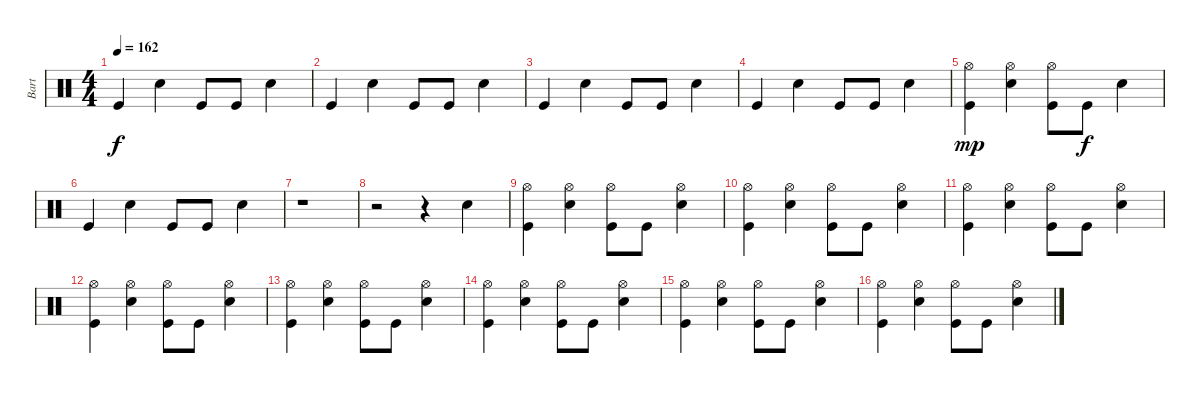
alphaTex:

\track ("Bart" "Bart") {instrument percussion}
\staff {score}
\articulation defaults
\ts (4 4)
\tempo 162
\clef neutral
\ks c "Kick (hit)".4{dy f} "Electric Snare (hit)".4 "Kick (hit)".8 "Kick (hit)".8 "Electric Snare (hit)".4
|
"Kick (hit)".4 "Electric Snare (hit)".4 "Kick (hit)".8 "Kick (hit)".8 "Electric Snare (hit)".4 |
"Kick (hit)".4 "Electric Snare (hit)".4 "Kick (hit)".8 "Kick (hit)".8 "Electric Snare (hit)".4 |
"Kick (hit)".4 "Electric Snare (hit)".4 "Kick (hit)".8 "Kick (hit)".8 "Electric Snare (hit)".4 |
("Kick (hit)" "Hi-Hat (open)").4{dy mp} ("Electric Snare (hit)" "Hi-Hat (open)").4 ("Kick (hit)" "Hi-Hat (open)").8 "Kick (hit)".8{dy f} "Electric Snare (hit)".4 |
"Kick (hit)".4 "Electric Snare (hit)".4 "Kick (hit)".8 "Kick (hit)".8 "Electric Snare (hit)".4 |
r.1 |
r.2 r.4 "Electric Snare (hit)".4 |
("Kick (hit)" "Hi-Hat (open)").4 ("Electric Snare (hit)" "Hi-Hat (open)").4 ("Kick (hit)" "Hi-Hat (open)").8 "Kick (hit)".8 ("Electric Snare (hit)" "Hi-Hat (open)").4 |
("Kick (hit)" "Hi-Hat (open)").4 ("Electric Snare (hit)" "Hi-Hat (open)").4 ("Kick (hit)" "Hi-Hat (open)").8 "Kick (hit)".8 ("Electric Snare (hit)" "Hi-Hat (open)").4 |
("Kick (hit)" "Hi-Hat (open)").4 ("Electric Snare (hit)" "Hi-Hat (open)").4 ("Kick (hit)" "Hi-Hat (open)").8 "Kick (hit)".8 ("Electric Snare (hit)" "Hi-Hat (open)").4 |
("Kick (hit)" "Hi-Hat (open)").4 ("Electric Snare (hit)" "Hi-Hat (open)").4 ("Kick (hit)" "Hi-Hat (open)").8 "Kick (hit)".8 ("Electric Snare (hit)" "Hi-Hat (open)").4 |
("Kick (hit)" "Hi-Hat (open)").4 ("Electric Snare (hit)" "Hi-Hat (open)").4 ("Kick (hit)" "Hi-Hat (open)").8 "Kick (hit)".8 ("Electric Snare (hit)" "Hi-Hat (open)").4 |
("Kick (hit)" "Hi-Hat (open)").4 ("Electric Snare (hit)" "Hi-Hat (open)").4 ("Kick (hit)" "Hi-Hat (open)").8 "Kick (hit)".8 ("Electric Snare (hit)" "Hi-Hat (open)").4 |
("Kick (hit)" "Hi-Hat (open)").4 ("Electric Snare (hit)" "Hi-Hat (open)").4 ("Kick (hit)" "Hi-Hat (open)").8 "Kick (hit)".8 ("Electric Snare (hit)" "Hi-Hat (open)").4 |
("Kick (hit)" "Hi-Hat (open)").4 ("Electric Snare (hit)" "Hi-Hat (open)").4 ("Kick (hit)" "Hi-Hat (open)").8 "Kick (hit)".8 ("Electric Snare (hit)" "Hi-Hat (open)").4
